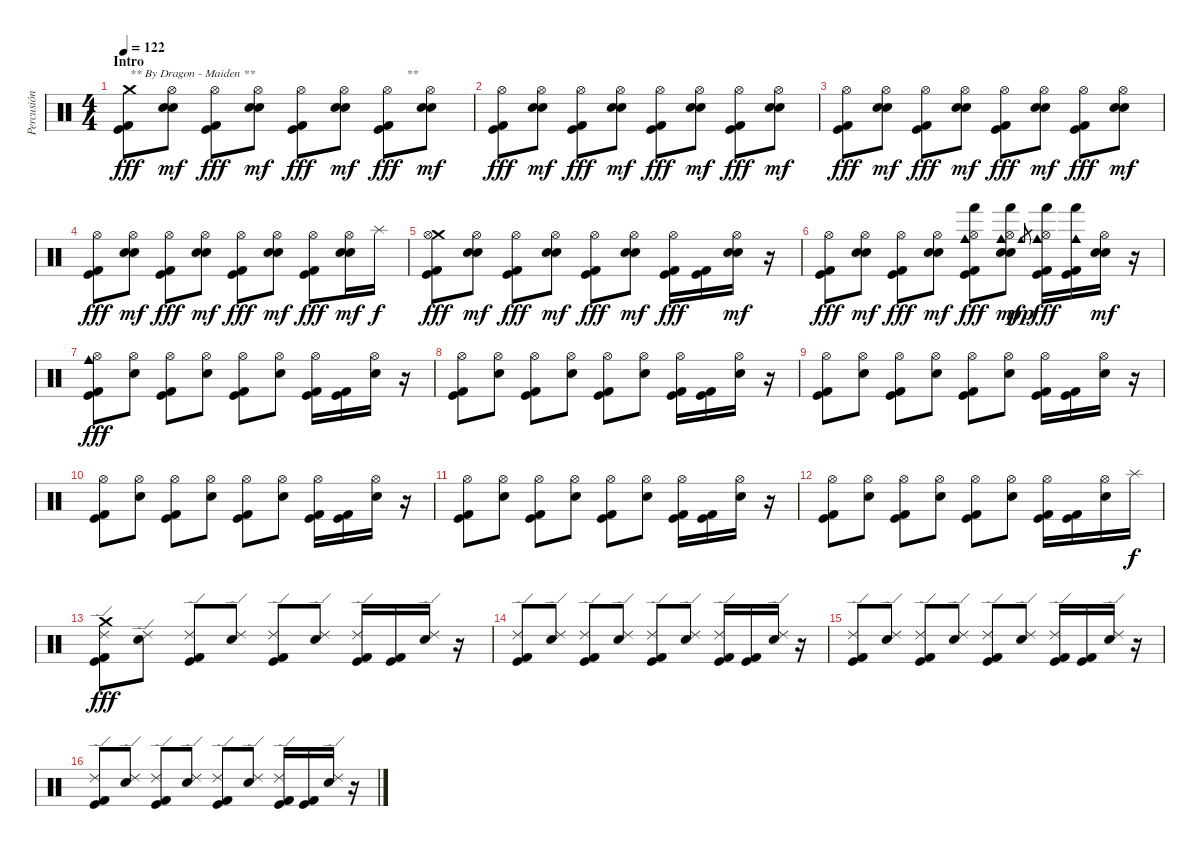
\track ("Percusión" "Percusión") {instrument percussion}
\staff {score}
\articulation defaults
\ts (4 4)
\section ("" "Intro")
\tempo 122
\clef neutral
\ks c
("Crash medium (hit)" "Kick (hit)" "Kick (hit) 2").8{txt "** By Dragon - Maiden **" dy fff} ("Hi-Hat (open)" "Electric Snare (hit)" "Snare (hit) 2").8{dy mf} ("Hi-Hat (open)" "Kick (hit)" "Kick (hit) 2").8{dy fff} ("Hi-Hat (open)" "Electric Snare (hit)" "Snare (hit) 2").8{dy mf} ("Hi-Hat (open)" "Kick (hit)" "Kick (hit) 2").8{dy fff} ("Hi-Hat (open)" "Electric Snare (hit)" "Snare (hit) 2").8{dy mf} ("Hi-Hat (open)" "Kick (hit)" "Kick (hit) 2").8{txt "      **" dy fff} ("Hi-Hat (open)" "Electric Snare (hit)" "Snare (hit) 2").8{dy mf} |
("Hi-Hat (open)" "Kick (hit)" "Kick (hit) 2").8{dy fff} ("Hi-Hat (open)" "Electric Snare (hit)" "Snare (hit) 2").8{dy mf} ("Hi-Hat (open)" "Kick (hit)" "Kick (hit) 2").8{dy fff} ("Hi-Hat (open)" "Electric Snare (hit)" "Snare (hit) 2").8{dy mf} ("Hi-Hat (open)" "Kick (hit)" "Kick (hit) 2").8{dy fff} ("Hi-Hat (open)" "Electric Snare (hit)" "Snare (hit) 2").8{dy mf} ("Hi-Hat (open)" "Kick (hit)" "Kick (hit) 2").8{dy fff} ("Hi-Hat (open)" "Electric Snare (hit)" "Snare (hit) 2").8{dy mf} |
("Hi-Hat (open)" "Kick (hit)" "Kick (hit) 2").8{dy fff} ("Hi-Hat (open)" "Electric Snare (hit)" "Snare (hit) 2").8{dy mf} ("Hi-Hat (open)" "Kick (hit)" "Kick (hit) 2").8{dy fff} ("Hi-Hat (open)" "Electric Snare (hit)" "Snare (hit) 2").8{dy mf} ("Hi-Hat (open)" "Kick (hit)" "Kick (hit) 2").8{dy fff} ("Hi-Hat (open)" "Electric Snare (hit)" "Snare (hit) 2").8{dy mf} ("Hi-Hat (open)" "Kick (hit)" "Kick (hit) 2").8{dy fff} ("Hi-Hat (open)" "Electric Snare (hit)" "Snare (hit) 2").8{dy mf} |
("Hi-Hat (open)" "Kick (hit)" "Kick (hit) 2").8{dy fff} ("Hi-Hat (open)" "Electric Snare (hit)" "Snare (hit) 2").8{dy mf} ("Hi-Hat (open)" "Kick (hit)" "Kick (hit) 2").8{dy fff} ("Hi-Hat (open)" "Electric Snare (hit)" "Snare (hit) 2").8{dy mf} ("Hi-Hat (open)" "Kick (hit)" "Kick (hit) 2").8{dy fff} ("Hi-Hat (open)" "Electric Snare (hit)" "Snare (hit) 2").8{dy mf} ("Hi-Hat (open)" "Kick (hit)" "Kick (hit) 2").8{dy fff} ("Hi-Hat (open)" "Electric Snare (hit)" "Snare (hit) 2").16{dy mf} "Splash (hit)".16{dy f} |
("Crash medium (hit)" "Hi-Hat (open)" "Kick (hit)" "Kick (hit) 2").8{dy fff} ("Hi-Hat (open)" "Electric Snare (hit)" "Snare (hit) 2").8{dy mf} ("Hi-Hat (open)" "Kick (hit)" "Kick (hit) 2").8{dy fff} ("Hi-Hat (open)" "Electric Snare (hit)" "Snare (hit) 2").8{dy mf} ("Hi-Hat (open)" "Kick (hit)" "Kick (hit) 2").8{dy fff} ("Hi-Hat (open)" "Electric Snare (hit)" "Snare (hit) 2").8{dy mf} ("Hi-Hat (open)" "Kick (hit)" "Kick (hit) 2").16{dy fff} ("Kick (hit)" "Kick (hit) 2").16 ("Hi-Hat (open)" "Electric Snare (hit)" "Snare (hit) 2").16{dy mf} r.16 |
("Hi-Hat (open)" "Kick (hit)" "Kick (hit) 2").8{dy fff} ("Hi-Hat (open)" "Electric Snare (hit)" "Snare (hit) 2").8{dy mf} ("Hi-Hat (open)" "Kick (hit)" "Kick (hit) 2").8{dy fff} ("Hi-Hat (open)" "Electric Snare (hit)" "Snare (hit) 2").8{dy mf} ("Hand (hit)" "Cowbell medium (hit)" "Hi-Hat (open)" "Kick (hit)" "Kick (hit) 2").8{dy fff} ("Hand (hit)" "Cowbell medium (hit)" "Hi-Hat (open)" "Electric Snare (hit)" "Snare (hit) 2").8{dy mf} "Cowbell medium (hit)".8{gr dy pp} ("Hand (hit)" "Cowbell medium (hit)" "Hi-Hat (open)" "Kick (hit)" "Kick (hit) 2").16{dy fff} ("Hand (hit)" "Cowbell medium (hit)" "Kick (hit)" "Kick (hit) 2").16 ("Hi-Hat (open)" "Electric Snare (hit)" "Snare (hit) 2").16{dy mf} r.16 |
("Cowbell medium (hit)" "Hi-Hat (open)" "Kick (hit)" "Kick (hit) 2").8{dy fff} ("Hi-Hat (open)" "Electric Snare (hit)").8 ("Hi-Hat (open)" "Kick (hit)" "Kick (hit) 2").8 ("Hi-Hat (open)" "Electric Snare (hit)").8 ("Hi-Hat (open)" "Kick (hit)" "Kick (hit) 2").8 ("Hi-Hat (open)" "Electric Snare (hit)").8 ("Hi-Hat (open)" "Kick (hit)" "Kick (hit) 2").16 ("Kick (hit)" "Kick (hit) 2").16 ("Hi-Hat (open)" "Electric Snare (hit)").16 r.16 |
("Hi-Hat (open)" "Kick (hit)" "Kick (hit) 2").8 ("Hi-Hat (open)" "Electric Snare (hit)").8 ("Hi-Hat (open)" "Kick (hit)" "Kick (hit) 2").8 ("Hi-Hat (open)" "Electric Snare (hit)").8 ("Hi-Hat (open)" "Kick (hit)" "Kick (hit) 2").8 ("Hi-Hat (open)" "Electric Snare (hit)").8 ("Hi-Hat (open)" "Kick (hit)" "Kick (hit) 2").16 ("Kick (hit)" "Kick (hit) 2").16 ("Hi-Hat (open)" "Electric Snare (hit)").16 r.16 |
("Hi-Hat (open)" "Kick (hit)" "Kick (hit) 2").8 ("Hi-Hat (open)" "Electric Snare (hit)").8 ("Hi-Hat (open)" "Kick (hit)" "Kick (hit) 2").8 ("Hi-Hat (open)" "Electric Snare (hit)").8 ("Hi-Hat (open)" "Kick (hit)" "Kick (hit) 2").8 ("Hi-Hat (open)" "Electric Snare (hit)").8 ("Hi-Hat (open)" "Kick (hit)" "Kick (hit) 2").16 ("Kick (hit)" "Kick (hit) 2").16 ("Hi-Hat (open)" "Electric Snare (hit)").16 r.16 |
("Hi-Hat (open)" "Kick (hit)" "Kick (hit) 2").8 ("Hi-Hat (open)" "Electric Snare (hit)").8 ("Hi-Hat (open)" "Kick (hit)" "Kick (hit) 2").8 ("Hi-Hat (open)" "Electric Snare (hit)").8 ("Hi-Hat (open)" "Kick (hit)" "Kick (hit) 2").8 ("Hi-Hat (open)" "Electric Snare (hit)").8 ("Hi-Hat (open)" "Kick (hit)" "Kick (hit) 2").16 ("Kick (hit)" "Kick (hit) 2").16 ("Hi-Hat (open)" "Electric Snare (hit)").16 r.16 |
("Hi-Hat (open)" "Kick (hit)" "Kick (hit) 2").8 ("Hi-Hat (open)" "Electric Snare (hit)").8 ("Hi-Hat (open)" "Kick (hit)" "Kick (hit) 2").8 ("Hi-Hat (open)" "Electric Snare (hit)").8 ("Hi-Hat (open)" "Kick (hit)" "Kick (hit) 2").8 ("Hi-Hat (open)" "Electric Snare (hit)").8 ("Hi-Hat (open)" "Kick (hit)" "Kick (hit) 2").16 ("Kick (hit)" "Kick (hit) 2").16 ("Hi-Hat (open)" "Electric Snare (hit)").16 r.16 |
("Hi-Hat (open)" "Kick (hit)" "Kick (hit) 2").8 ("Hi-Hat (open)" "Electric Snare (hit)").8 ("Hi-Hat (open)" "Kick (hit)" "Kick (hit) 2").8 ("Hi-Hat (open)" "Electric Snare (hit)").8 ("Hi-Hat (open)" "Kick (hit)" "Kick (hit) 2").8 ("Hi-Hat (open)" "Electric Snare (hit)").8 ("Hi-Hat (open)" "Kick (hit)" "Kick (hit) 2").16 ("Kick (hit)" "Kick (hit) 2").16 ("Hi-Hat (open)" "Electric Snare (hit)").16 "Splash (hit)".16{dy f} |
("Crash medium (hit)" "Ride (edge) 2" "Kick (hit)" "Kick (hit) 2").8{dy fff} ("Ride (edge) 2" "Electric Snare (hit)").8 ("Ride (edge) 2" "Kick (hit)" "Kick (hit) 2").8 ("Ride (edge) 2" "Electric Snare (hit)").8 ("Ride (edge) 2" "Kick (hit)" "Kick (hit) 2").8 ("Ride (edge) 2" "Electric Snare (hit)").8 ("Ride (edge) 2" "Kick (hit)" "Kick (hit) 2").16 ("Kick (hit)" "Kick (hit) 2").16 ("Ride (edge) 2" "Electric Snare (hit)").16 r.16 |
("Ride (edge) 2" "Kick (hit)" "Kick (hit) 2").8 ("Ride (edge) 2" "Electric Snare (hit)").8 ("Ride (edge) 2" "Kick (hit)" "Kick (hit) 2").8 ("Ride (edge) 2" "Electric Snare (hit)").8 ("Ride (edge) 2" "Kick (hit)" "Kick (hit) 2").8 ("Ride (edge) 2" "Electric Snare (hit)").8 ("Ride (edge) 2" "Kick (hit)" "Kick (hit) 2").16 ("Kick (hit)" "Kick (hit) 2").16 ("Ride (edge) 2" "Electric Snare (hit)").16 r.16 |
("Ride (edge) 2" "Kick (hit)" "Kick (hit) 2").8 ("Ride (edge) 2" "Electric Snare (hit)").8 ("Ride (edge) 2" "Kick (hit)" "Kick (hit) 2").8 ("Ride (edge) 2" "Electric Snare (hit)").8 ("Ride (edge) 2" "Kick (hit)" "Kick (hit) 2").8 ("Ride (edge) 2" "Electric Snare (hit)").8 ("Ride (edge) 2" "Kick (hit)" "Kick (hit) 2").16 ("Kick (hit)" "Kick (hit) 2").16 ("Ride (edge) 2" "Electric Snare (hit)").16 r.16 |
("Ride (edge) 2" "Kick (hit)" "Kick (hit) 2").8 ("Ride (edge) 2" "Electric Snare (hit)").8 ("Ride (edge) 2" "Kick (hit)" "Kick (hit) 2").8 ("Ride (edge) 2" "Electric Snare (hit)").8 ("Ride (edge) 2" "Kick (hit)" "Kick (hit) 2").8 ("Ride (edge) 2" "Electric Snare (hit)").8 ("Ride (edge) 2" "Kick (hit)" "Kick (hit) 2").16 ("Kick (hit)" "Kick (hit) 2").16 ("Ride (edge) 2" "Electric Snare (hit)").16 r.16
